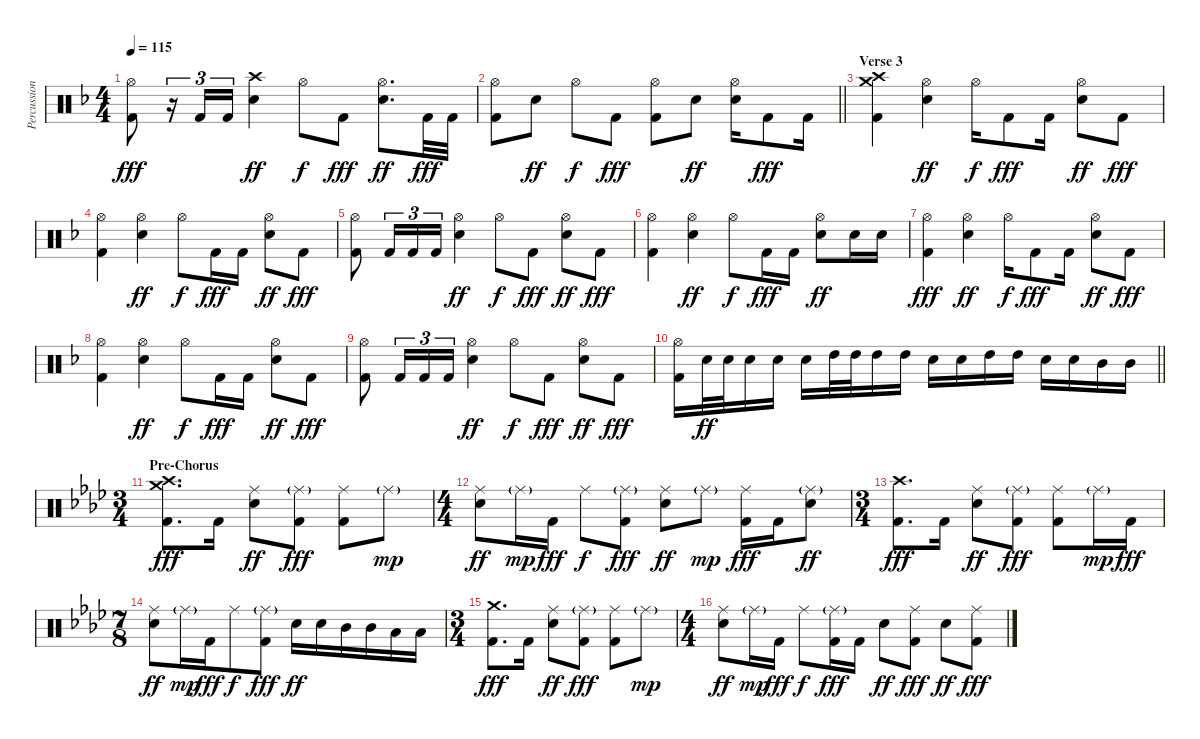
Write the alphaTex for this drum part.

\track ("Percussion" "Percussion") {instrument percussion}
\staff {score}
\articulation defaults
\ts (4 4)
\tempo 115
\clef neutral
\ks dminor
("Hi-Hat (open)" "Kick (hit) 2").8{dy fff} r.16{tu (3 2)} "Kick (hit) 2".16{tu (3 2)} "Kick (hit) 2".16{tu (3 2)} ("Crash high (hit)" "Electric Snare (hit)").4{dy ff} "Hi-Hat (open)".8{dy f} "Kick (hit) 2".8{dy fff} ("Hi-Hat (open)" "Electric Snare (hit)").8{d dy ff} "Kick (hit) 2".32{dy fff} "Kick (hit) 2".32 |
\barLineRight lightlight
("Hi-Hat (open)" "Kick (hit) 2").8 "Electric Snare (hit)".8{dy ff} "Hi-Hat (open)".8{dy f} "Kick (hit) 2".8{dy fff} ("Hi-Hat (open)" "Kick (hit) 2").8 "Electric Snare (hit)".8{dy ff} ("Hi-Hat (open)" "Electric Snare (hit)").16 "Kick (hit) 2".8{dy fff} "Kick (hit) 2".16 |
\section ("" "Verse 3")
("Crash high (hit)" "Crash medium (hit)" "Kick (hit) 2").4 ("Hi-Hat (open)" "Electric Snare (hit)").4{dy ff} "Hi-Hat (open)".16{dy f} "Kick (hit) 2".8{dy fff} "Kick (hit) 2".16 ("Hi-Hat (open)" "Electric Snare (hit)").8{dy ff} "Kick (hit) 2".8{dy fff} |
("Hi-Hat (open)" "Kick (hit) 2").4 ("Hi-Hat (open)" "Electric Snare (hit)").4{dy ff} "Hi-Hat (open)".8{dy f} "Kick (hit) 2".16{dy fff} "Kick (hit) 2".16 ("Hi-Hat (open)" "Electric Snare (hit)").8{dy ff} "Kick (hit) 2".8{dy fff} |
("Hi-Hat (open)" "Kick (hit) 2").8 "Kick (hit) 2".16{tu (3 2)} "Kick (hit) 2".16{tu (3 2)} "Kick (hit) 2".16{tu (3 2)} ("Hi-Hat (open)" "Electric Snare (hit)").4{dy ff} "Hi-Hat (open)".8{dy f} "Kick (hit) 2".8{dy fff} ("Hi-Hat (open)" "Electric Snare (hit)").8{dy ff} "Kick (hit) 2".8{dy fff} |
("Hi-Hat (open)" "Kick (hit) 2").4 ("Hi-Hat (open)" "Electric Snare (hit)").4{dy ff} "Hi-Hat (open)".8{dy f} "Kick (hit) 2".16{dy fff} "Kick (hit) 2".16 ("Hi-Hat (open)" "Electric Snare (hit)").8{dy ff} "Electric Snare (hit)".16 "Electric Snare (hit)".16 |
("Hi-Hat (open)" "Kick (hit) 2").4{dy fff} ("Hi-Hat (open)" "Electric Snare (hit)").4{dy ff} "Hi-Hat (open)".16{dy f} "Kick (hit) 2".8{dy fff} "Kick (hit) 2".16 ("Hi-Hat (open)" "Electric Snare (hit)").8{dy ff} "Kick (hit) 2".8{dy fff} |
("Hi-Hat (open)" "Kick (hit) 2").4 ("Hi-Hat (open)" "Electric Snare (hit)").4{dy ff} "Hi-Hat (open)".8{dy f} "Kick (hit) 2".16{dy fff} "Kick (hit) 2".16 ("Hi-Hat (open)" "Electric Snare (hit)").8{dy ff} "Kick (hit) 2".8{dy fff} |
("Hi-Hat (open)" "Kick (hit) 2").8 "Kick (hit) 2".16{tu (3 2)} "Kick (hit) 2".16{tu (3 2)} "Kick (hit) 2".16{tu (3 2)} ("Hi-Hat (open)" "Electric Snare (hit)").4{dy ff} "Hi-Hat (open)".8{dy f} "Kick (hit) 2".8{dy fff} ("Hi-Hat (open)" "Electric Snare (hit)").8{dy ff} "Kick (hit) 2".8{dy fff} |
\barLineRight lightlight
("Hi-Hat (open)" "Kick (hit) 2").16 "Electric Snare (hit)".32{dy ff} "Electric Snare (hit)".32 "Electric Snare (hit)".16 "Electric Snare (hit)".16 "Electric Snare (hit)".16 "High Tom (hit)".32 "High Tom (hit)".32 "High Tom (hit)".16 "High Tom (hit)".16 "Electric Snare (hit)".16 "Electric Snare (hit)".16 "High Tom (hit)".16 "High Tom (hit)".16 "Electric Snare (hit)".16 "Electric Snare (hit)".16 "Mid Tom (hit)".16 "Mid Tom (hit)".16 |
\ts (3 4)
\section ("" "Pre-Chorus")
\ks fminor
("Crash high (hit)" "Crash medium (hit)" "Kick (hit) 2").8{d dy fff} "Kick (hit) 2".16 ("Ride (middle)" "Electric Snare (hit)").8{dy ff} ("Ride (middle)"{g} "Kick (hit) 2").8{dy fff} ("Ride (middle)" "Kick (hit) 2").8 "Ride (middle)"{g}.8{dy mp} |
\ts (4 4)
("Ride (middle)" "Electric Snare (hit)").8{dy ff} "Ride (middle)"{g}.16{dy mp} "Kick (hit) 2".16{dy fff} "Ride (middle)".8{dy f} ("Ride (middle)"{g} "Kick (hit) 2").8{dy fff} ("Ride (middle)" "Electric Snare (hit)").8{dy ff} "Ride (middle)"{g}.8{dy mp} ("Ride (middle)" "Kick (hit) 2").16{dy fff} "Kick (hit) 2".16 ("Ride (middle)"{g} "Electric Snare (hit)").8{dy ff} |
\ts (3 4)
("Crash high (hit)" "Kick (hit) 2").8{d dy fff} "Kick (hit) 2".16 ("Ride (middle)" "Electric Snare (hit)").8{dy ff} ("Ride (middle)"{g} "Kick (hit) 2").8{dy fff} ("Ride (middle)" "Kick (hit) 2").8 "Ride (middle)"{g}.16{dy mp} "Kick (hit) 2".16{dy fff} |
\ts (7 8)
("Ride (middle)" "Electric Snare (hit)").8{dy ff} "Ride (middle)"{g}.16{dy mp} "Kick (hit) 2".16{dy fff} "Ride (middle)".8{dy f} ("Ride (middle)"{g} "Kick (hit) 2").8{dy fff} "Electric Snare (hit)".16{dy ff} "Electric Snare (hit)".16 "Mid Tom (hit)".16 "Mid Tom (hit)".16 "Low Tom (hit)".16 "Low Tom (hit)".16 |
\ts (3 4)
("Crash medium (hit)" "Kick (hit) 2").8{d dy fff} "Kick (hit) 2".16 ("Ride (middle)" "Electric Snare (hit)").8{dy ff} ("Ride (middle)"{g} "Kick (hit) 2").8{dy fff} ("Ride (middle)" "Kick (hit) 2").8 "Ride (middle)"{g}.8{dy mp} |
\ts (4 4)
("Ride (middle)" "Electric Snare (hit)").8{dy ff} "Ride (middle)"{g}.16{dy mp} "Kick (hit) 2".16{dy fff} "Ride (middle)".8{dy f} ("Ride (middle)"{g} "Kick (hit) 2").16{dy fff} "Kick (hit) 2".16 "Electric Snare (hit)".8{dy ff} ("Ride (middle)" "Kick (hit) 2").8{dy fff} "Electric Snare (hit)".8{dy ff} ("Ride (middle)" "Kick (hit) 2").8{dy fff}
